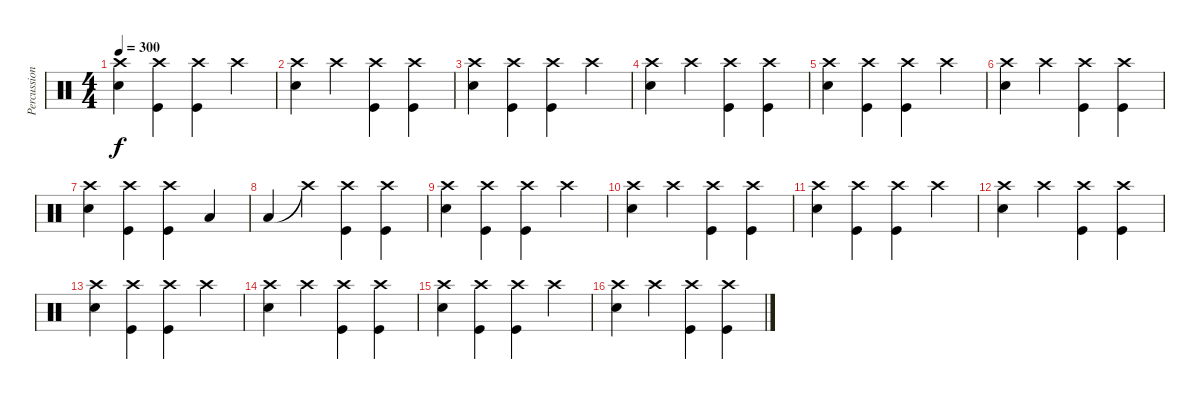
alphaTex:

\track ("Percussion" "Percussion") {instrument percussion}
\staff {score}
\articulation defaults
\ts (4 4)
\tempo 300
\clef neutral
\ks c
("Electric Snare (hit)" "Crash high (hit)").4{dy f} ("Kick (hit)" "Crash high (hit)").4 ("Kick (hit)" "Crash high (hit)").4 "Crash high (hit)".4 |
("Electric Snare (hit)" "Crash high (hit)").4 "Crash high (hit)".4 ("Kick (hit)" "Crash high (hit)").4 ("Kick (hit)" "Crash high (hit)").4 |
("Electric Snare (hit)" "Crash high (hit)").4 ("Kick (hit)" "Crash high (hit)").4 ("Kick (hit)" "Crash high (hit)").4 "Crash high (hit)".4 |
("Electric Snare (hit)" "Crash high (hit)").4 "Crash high (hit)".4 ("Kick (hit)" "Crash high (hit)").4 ("Kick (hit)" "Crash high (hit)").4 |
("Electric Snare (hit)" "Crash high (hit)").4 ("Kick (hit)" "Crash high (hit)").4 ("Kick (hit)" "Crash high (hit)").4 "Crash high (hit)".4 |
("Electric Snare (hit)" "Crash high (hit)").4 "Crash high (hit)".4 ("Kick (hit)" "Crash high (hit)").4 ("Kick (hit)" "Crash high (hit)").4 |
("Electric Snare (hit)" "Crash high (hit)").4 ("Kick (hit)" "Crash high (hit)").4 ("Kick (hit)" "Crash high (hit)").4 "Low Floor Tom (hit)".4 |
"Low Floor Tom (hit)".4 "Crash high (hit)"{t}.4 ("Kick (hit)" "Crash high (hit)").4 ("Kick (hit)" "Crash high (hit)").4 |
("Electric Snare (hit)" "Crash high (hit)").4 ("Kick (hit)" "Crash high (hit)").4 ("Kick (hit)" "Crash high (hit)").4 "Crash high (hit)".4 |
("Electric Snare (hit)" "Crash high (hit)").4 "Crash high (hit)".4 ("Kick (hit)" "Crash high (hit)").4 ("Kick (hit)" "Crash high (hit)").4 |
("Electric Snare (hit)" "Crash high (hit)").4 ("Kick (hit)" "Crash high (hit)").4 ("Kick (hit)" "Crash high (hit)").4 "Crash high (hit)".4 |
("Electric Snare (hit)" "Crash high (hit)").4 "Crash high (hit)".4 ("Kick (hit)" "Crash high (hit)").4 ("Kick (hit)" "Crash high (hit)").4 |
("Electric Snare (hit)" "Crash high (hit)").4 ("Kick (hit)" "Crash high (hit)").4 ("Kick (hit)" "Crash high (hit)").4 "Crash high (hit)".4 |
("Electric Snare (hit)" "Crash high (hit)").4 "Crash high (hit)".4 ("Kick (hit)" "Crash high (hit)").4 ("Kick (hit)" "Crash high (hit)").4 |
("Electric Snare (hit)" "Crash high (hit)").4 ("Kick (hit)" "Crash high (hit)").4 ("Kick (hit)" "Crash high (hit)").4 "Crash high (hit)".4 |
("Electric Snare (hit)" "Crash high (hit)").4 "Crash high (hit)".4 ("Kick (hit)" "Crash high (hit)").4 ("Kick (hit)" "Crash high (hit)").4
